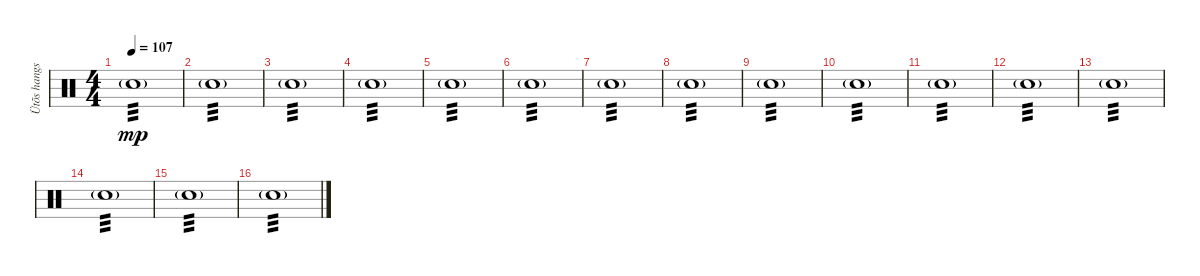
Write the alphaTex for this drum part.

\track ("Ütõs hangszer" "Ütõs hangs") {instrument percussion}
\staff {score}
\articulation defaults
\ts (4 4)
\tempo 107
\clef neutral
\ks c "Electric Snare (hit)"{g}.1{tp 3 dy mp}
|
"Electric Snare (hit)"{g}.1{tp 3} |
"Electric Snare (hit)"{g}.1{tp 3} |
"Electric Snare (hit)"{g}.1{tp 3} |
"Electric Snare (hit)"{g}.1{tp 3} |
"Electric Snare (hit)"{g}.1{tp 3} |
"Electric Snare (hit)"{g}.1{tp 3} |
"Electric Snare (hit)"{g}.1{tp 3} |
"Electric Snare (hit)"{g}.1{tp 3} |
"Electric Snare (hit)"{g}.1{tp 3} |
"Electric Snare (hit)"{g}.1{tp 3} |
"Electric Snare (hit)"{g}.1{tp 3} |
"Electric Snare (hit)"{g}.1{tp 3} |
"Electric Snare (hit)"{g}.1{tp 3} |
"Electric Snare (hit)"{g}.1{tp 3} |
"Electric Snare (hit)"{g}.1{tp 3}
